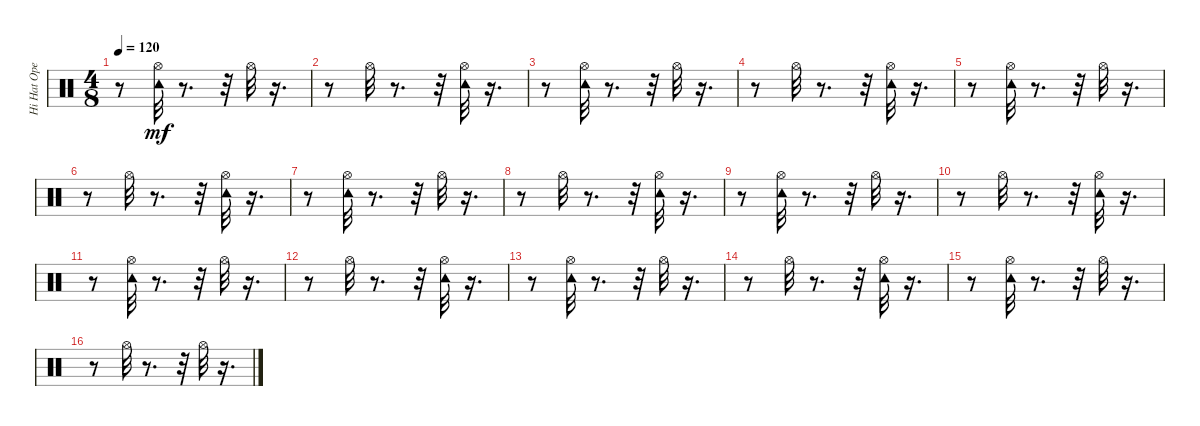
\track ("Hi Hat Open" "Hi Hat Ope") {instrument percussion}
\staff {score}
\articulation defaults
\ts (4 8)
\tempo 120
\clef neutral
\ks c
r.8{dy mf} ("Tambourine (hit)" "Hi-Hat (open)").32 r.8{d} r.32 "Hi-Hat (open)".32 r.16{d} |
r.8 "Hi-Hat (open)".32 r.8{d} r.32 ("Tambourine (hit)" "Hi-Hat (open)").32 r.16{d} |
r.8 ("Tambourine (hit)" "Hi-Hat (open)").32 r.8{d} r.32 "Hi-Hat (open)".32 r.16{d} |
r.8 "Hi-Hat (open)".32 r.8{d} r.32 ("Tambourine (hit)" "Hi-Hat (open)").32 r.16{d} |
r.8 ("Tambourine (hit)" "Hi-Hat (open)").32 r.8{d} r.32 "Hi-Hat (open)".32 r.16{d} |
r.8 "Hi-Hat (open)".32 r.8{d} r.32 ("Tambourine (hit)" "Hi-Hat (open)").32 r.16{d} |
r.8 ("Tambourine (hit)" "Hi-Hat (open)").32 r.8{d} r.32 "Hi-Hat (open)".32 r.16{d} |
r.8 "Hi-Hat (open)".32 r.8{d} r.32 ("Tambourine (hit)" "Hi-Hat (open)").32 r.16{d} |
r.8 ("Tambourine (hit)" "Hi-Hat (open)").32 r.8{d} r.32 "Hi-Hat (open)".32 r.16{d} |
r.8 "Hi-Hat (open)".32 r.8{d} r.32 ("Tambourine (hit)" "Hi-Hat (open)").32 r.16{d} |
r.8 ("Tambourine (hit)" "Hi-Hat (open)").32 r.8{d} r.32 "Hi-Hat (open)".32 r.16{d} |
r.8 "Hi-Hat (open)".32 r.8{d} r.32 ("Tambourine (hit)" "Hi-Hat (open)").32 r.16{d} |
r.8 ("Tambourine (hit)" "Hi-Hat (open)").32 r.8{d} r.32 "Hi-Hat (open)".32 r.16{d} |
r.8 "Hi-Hat (open)".32 r.8{d} r.32 ("Tambourine (hit)" "Hi-Hat (open)").32 r.16{d} |
r.8 ("Tambourine (hit)" "Hi-Hat (open)").32 r.8{d} r.32 "Hi-Hat (open)".32 r.16{d} |
r.8 "Hi-Hat (open)".32 r.8{d} r.32 "Hi-Hat (open)".32 r.16{d}
